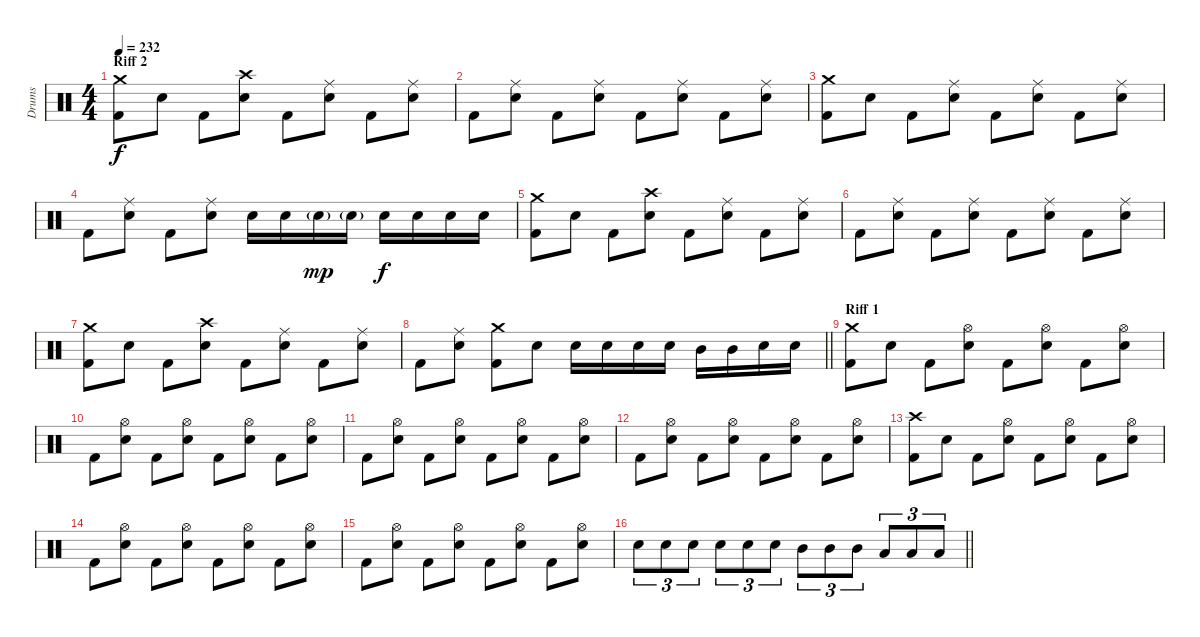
\track ("Drums" "Drums") {instrument percussion}
\staff {score}
\articulation defaults
\ts (4 4)
\section ("" "Riff 2")
\tempo 232
\clef neutral
\ks c
("Kick (hit) 2" "Crash medium (hit)").8{dy f} "Electric Snare (hit)".8 "Kick (hit) 2".8 ("Crash high (hit)" "Electric Snare (hit)").8 "Kick (hit) 2".8 ("Electric Snare (hit)" "Ride (middle)").8 "Kick (hit) 2".8 ("Electric Snare (hit)" "Ride (middle)").8 |
"Kick (hit) 2".8 ("Electric Snare (hit)" "Ride (middle)").8 "Kick (hit) 2".8 ("Electric Snare (hit)" "Ride (middle)").8 "Kick (hit) 2".8 ("Electric Snare (hit)" "Ride (middle)").8 "Kick (hit) 2".8 ("Electric Snare (hit)" "Ride (middle)").8 |
("Kick (hit) 2" "Crash medium (hit)").8 "Electric Snare (hit)".8 "Kick (hit) 2".8 ("Electric Snare (hit)" "Ride (middle)").8 "Kick (hit) 2".8 ("Electric Snare (hit)" "Ride (middle)").8 "Kick (hit) 2".8 ("Electric Snare (hit)" "Ride (middle)").8 |
"Kick (hit) 2".8 ("Electric Snare (hit)" "Ride (middle)").8 "Kick (hit) 2".8 ("Electric Snare (hit)" "Ride (middle)").8 "Electric Snare (hit)".16 "Electric Snare (hit)".16 "Electric Snare (hit)"{g}.16{dy mp} "Electric Snare (hit)"{g}.16 "Electric Snare (hit)".16{dy f} "Electric Snare (hit)".16 "Electric Snare (hit)".16 "Electric Snare (hit)".16 |
("Kick (hit) 2" "Crash medium (hit)").8 "Electric Snare (hit)".8 "Kick (hit) 2".8 ("Crash high (hit)" "Electric Snare (hit)").8 "Kick (hit) 2".8 ("Electric Snare (hit)" "Ride (middle)").8 "Kick (hit) 2".8 ("Electric Snare (hit)" "Ride (middle)").8 |
"Kick (hit) 2".8 ("Electric Snare (hit)" "Ride (middle)").8 "Kick (hit) 2".8 ("Electric Snare (hit)" "Ride (middle)").8 "Kick (hit) 2".8 ("Electric Snare (hit)" "Ride (middle)").8 "Kick (hit) 2".8 ("Electric Snare (hit)" "Ride (middle)").8 |
("Kick (hit) 2" "Crash medium (hit)").8 "Electric Snare (hit)".8 "Kick (hit) 2".8 ("Crash high (hit)" "Electric Snare (hit)").8 "Kick (hit) 2".8 ("Electric Snare (hit)" "Ride (middle)").8 "Kick (hit) 2".8 ("Electric Snare (hit)" "Ride (middle)").8 |
\barLineRight lightlight "Kick (hit) 2".8
("Electric Snare (hit)" "Ride (middle)").8 ("Kick (hit) 2" "Crash medium (hit)").8 "Electric Snare (hit)".8 "Electric Snare (hit)".16 "Electric Snare (hit)".16 "Electric Snare (hit)".16 "Electric Snare (hit)".16 "Mid Tom (hit)".16 "Mid Tom (hit)".16 "Electric Snare (hit)".16 "Electric Snare (hit)".16 |
\section ("" "Riff 1")
("Kick (hit) 2" "Crash medium (hit)").8 "Electric Snare (hit)".8 "Kick (hit) 2".8 ("Electric Snare (hit)" "Hi-Hat (open)").8 "Kick (hit) 2".8 ("Electric Snare (hit)" "Hi-Hat (open)").8 "Kick (hit) 2".8 ("Electric Snare (hit)" "Hi-Hat (open)").8 |
"Kick (hit) 2".8 ("Electric Snare (hit)" "Hi-Hat (open)").8 "Kick (hit) 2".8 ("Electric Snare (hit)" "Hi-Hat (open)").8 "Kick (hit) 2".8 ("Electric Snare (hit)" "Hi-Hat (open)").8 "Kick (hit) 2".8 ("Electric Snare (hit)" "Hi-Hat (open)").8 |
"Kick (hit) 2".8 ("Electric Snare (hit)" "Hi-Hat (open)").8 "Kick (hit) 2".8 ("Electric Snare (hit)" "Hi-Hat (open)").8 "Kick (hit) 2".8 ("Electric Snare (hit)" "Hi-Hat (open)").8 "Kick (hit) 2".8 ("Electric Snare (hit)" "Hi-Hat (open)").8 |
"Kick (hit) 2".8 ("Electric Snare (hit)" "Hi-Hat (open)").8 "Kick (hit) 2".8 ("Electric Snare (hit)" "Hi-Hat (open)").8 "Kick (hit) 2".8 ("Electric Snare (hit)" "Hi-Hat (open)").8 "Kick (hit) 2".8 ("Electric Snare (hit)" "Hi-Hat (open)").8 |
("Kick (hit) 2" "Crash high (hit)").8 "Electric Snare (hit)".8 "Kick (hit) 2".8 ("Electric Snare (hit)" "Hi-Hat (open)").8 "Kick (hit) 2".8 ("Electric Snare (hit)" "Hi-Hat (open)").8 "Kick (hit) 2".8 ("Electric Snare (hit)" "Hi-Hat (open)").8 |
"Kick (hit) 2".8 ("Electric Snare (hit)" "Hi-Hat (open)").8 "Kick (hit) 2".8 ("Electric Snare (hit)" "Hi-Hat (open)").8 "Kick (hit) 2".8 ("Electric Snare (hit)" "Hi-Hat (open)").8 "Kick (hit) 2".8 ("Electric Snare (hit)" "Hi-Hat (open)").8 |
"Kick (hit) 2".8 ("Electric Snare (hit)" "Hi-Hat (open)").8 "Kick (hit) 2".8 ("Electric Snare (hit)" "Hi-Hat (open)").8 "Kick (hit) 2".8 ("Electric Snare (hit)" "Hi-Hat (open)").8 "Kick (hit) 2".8 ("Electric Snare (hit)" "Hi-Hat (open)").8 |
\barLineRight lightlight "Electric Snare (hit)".8{tu (3 2)} "Electric Snare (hit)".8{tu (3 2)} "Electric Snare (hit)".8{tu (3 2)} "Electric Snare (hit)".8{tu (3 2)} "Electric Snare (hit)".8{tu (3 2)} "Electric Snare (hit)".8{tu (3 2)} "Mid Tom (hit)".8{tu (3 2)} "Mid Tom (hit)".8{tu (3 2)} "Mid Tom (hit)".8{tu (3 2)} "Low Floor Tom (hit)".8{tu (3 2)} "Low Floor Tom (hit)".8{tu (3 2)} "Low Floor Tom (hit)".8{tu (3 2)}
